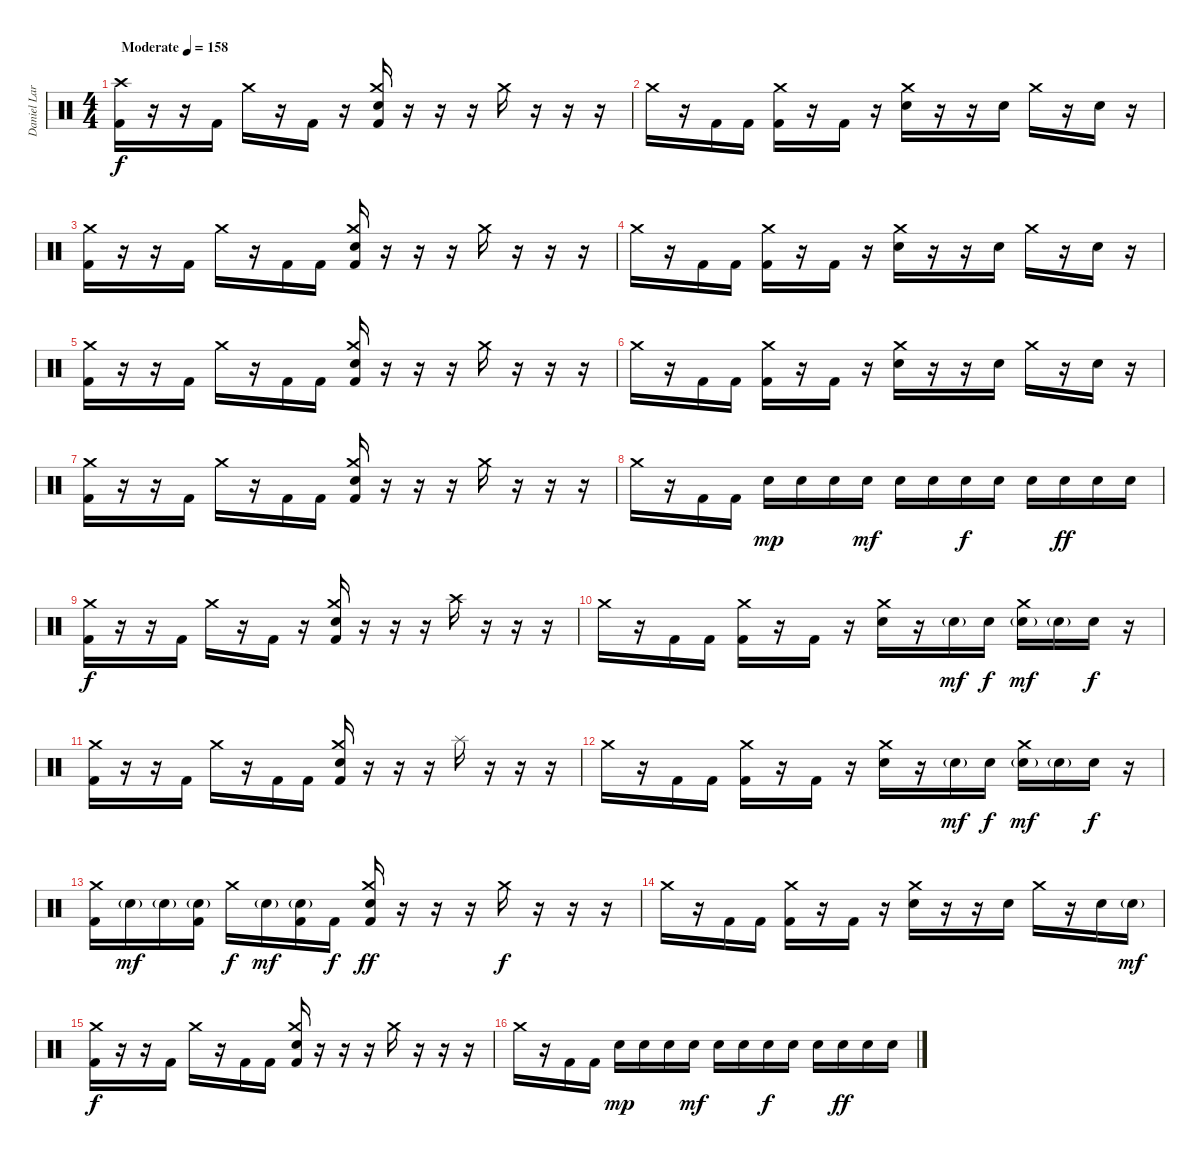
\track ("Daniel Larsen" "Daniel Lar") {instrument percussion}
\staff {score}
\articulation defaults
\ts (4 4)
\tempo (158 "Moderate")
\clef neutral
\ks c
("Crash high (hit)" "Kick (hit) 2").16{dy f} r.16 r.16 "Kick (hit) 2".16 "Crash medium (hit)".16 r.16 "Kick (hit) 2".16 r.16 ("Crash medium (hit)" "Electric Snare (hit)" "Kick (hit) 2").16 r.16 r.16 r.16 "Crash medium (hit)".16 r.16 r.16 r.16 |
"Crash medium (hit)".16 r.16 "Kick (hit) 2".16 "Kick (hit) 2".16 ("Crash medium (hit)" "Kick (hit) 2").16 r.16 "Kick (hit) 2".16 r.16 ("Crash medium (hit)" "Electric Snare (hit)").16 r.16 r.16 "Electric Snare (hit)".16 "Crash medium (hit)".16 r.16 "Electric Snare (hit)".16 r.16 |
("Crash medium (hit)" "Kick (hit) 2").16 r.16 r.16 "Kick (hit) 2".16 "Crash medium (hit)".16 r.16 "Kick (hit) 2".16 "Kick (hit) 2".16 ("Crash medium (hit)" "Electric Snare (hit)" "Kick (hit) 2").16 r.16 r.16 r.16 "Crash medium (hit)".16 r.16 r.16 r.16 |
"Crash medium (hit)".16 r.16 "Kick (hit) 2".16 "Kick (hit) 2".16 ("Crash medium (hit)" "Kick (hit) 2").16 r.16 "Kick (hit) 2".16 r.16 ("Crash medium (hit)" "Electric Snare (hit)").16 r.16 r.16 "Electric Snare (hit)".16 "Crash medium (hit)".16 r.16 "Electric Snare (hit)".16 r.16 |
("Crash medium (hit)" "Kick (hit) 2").16 r.16 r.16 "Kick (hit) 2".16 "Crash medium (hit)".16 r.16 "Kick (hit) 2".16 "Kick (hit) 2".16 ("Crash medium (hit)" "Electric Snare (hit)" "Kick (hit) 2").16 r.16 r.16 r.16 "Crash medium (hit)".16 r.16 r.16 r.16 |
"Crash medium (hit)".16 r.16 "Kick (hit) 2".16 "Kick (hit) 2".16 ("Crash medium (hit)" "Kick (hit) 2").16 r.16 "Kick (hit) 2".16 r.16 ("Crash medium (hit)" "Electric Snare (hit)").16 r.16 r.16 "Electric Snare (hit)".16 "Crash medium (hit)".16 r.16 "Electric Snare (hit)".16 r.16 |
("Crash medium (hit)" "Kick (hit) 2").16 r.16 r.16 "Kick (hit) 2".16 "Crash medium (hit)".16 r.16 "Kick (hit) 2".16 "Kick (hit) 2".16 ("Crash medium (hit)" "Electric Snare (hit)" "Kick (hit) 2").16 r.16 r.16 r.16 "Crash medium (hit)".16 r.16 r.16 r.16 |
"Crash medium (hit)".16 r.16 "Kick (hit) 2".16 "Kick (hit) 2".16 "Electric Snare (hit)".16{dy mp} "Electric Snare (hit)".16 "Electric Snare (hit)".16 "Electric Snare (hit)".16{dy mf} "Electric Snare (hit)".16 "Electric Snare (hit)".16 "Electric Snare (hit)".16{dy f} "Electric Snare (hit)".16 "Electric Snare (hit)".16 "Electric Snare (hit)".16{dy ff} "Electric Snare (hit)".16 "Electric Snare (hit)".16 |
("Crash medium (hit)" "Kick (hit) 2").16{dy f} r.16 r.16 "Kick (hit) 2".16 "Crash medium (hit)".16 r.16 "Kick (hit) 2".16 r.16 ("Crash medium (hit)" "Electric Snare (hit)" "Kick (hit) 2").16 r.16 r.16 r.16 "Crash high (hit)".16 r.16 r.16 r.16 |
"Crash medium (hit)".16 r.16 "Kick (hit) 2".16 "Kick (hit) 2".16 ("Crash medium (hit)" "Kick (hit) 2").16 r.16 "Kick (hit) 2".16 r.16 ("Crash medium (hit)" "Electric Snare (hit)").16 r.16 "Electric Snare (hit)"{g}.16{dy mf} "Electric Snare (hit)".16{dy f} ("Crash medium (hit)" "Electric Snare (hit)"{g}).16{dy mf} "Electric Snare (hit)"{g}.16 "Electric Snare (hit)".16{dy f} r.16 |
("Crash medium (hit)" "Kick (hit) 2").16 r.16 r.16 "Kick (hit) 2".16 "Crash medium (hit)".16 r.16 "Kick (hit) 2".16 "Kick (hit) 2".16 ("Crash medium (hit)" "Electric Snare (hit)" "Kick (hit) 2").16 r.16 r.16 r.16 "Splash (hit)".16 r.16 r.16 r.16 |
"Crash medium (hit)".16 r.16 "Kick (hit) 2".16 "Kick (hit) 2".16 ("Crash medium (hit)" "Kick (hit) 2").16 r.16 "Kick (hit) 2".16 r.16 ("Crash medium (hit)" "Electric Snare (hit)").16 r.16 "Electric Snare (hit)"{g}.16{dy mf} "Electric Snare (hit)".16{dy f} ("Crash medium (hit)" "Electric Snare (hit)"{g}).16{dy mf} "Electric Snare (hit)"{g}.16 "Electric Snare (hit)".16{dy f} r.16 |
("Crash medium (hit)" "Kick (hit) 2").16 "Electric Snare (hit)"{g}.16{dy mf} "Electric Snare (hit)"{g}.16 ("Electric Snare (hit)"{g} "Kick (hit) 2").16 "Crash medium (hit)".16{dy f} "Electric Snare (hit)"{g}.16{dy mf} ("Electric Snare (hit)"{g} "Kick (hit) 2").16 "Kick (hit) 2".16{dy f} ("Crash medium (hit)" "Electric Snare (hit)" "Kick (hit) 2").16{dy ff} r.16 r.16 r.16 "Crash medium (hit)".16{dy f} r.16 r.16 r.16 |
"Crash medium (hit)".16 r.16 "Kick (hit) 2".16 "Kick (hit) 2".16 ("Crash medium (hit)" "Kick (hit) 2").16 r.16 "Kick (hit) 2".16 r.16 ("Crash medium (hit)" "Electric Snare (hit)").16 r.16 r.16 "Electric Snare (hit)".16 "Crash medium (hit)".16 r.16 "Electric Snare (hit)".16 "Electric Snare (hit)"{g}.16{dy mf} |
("Crash medium (hit)" "Kick (hit) 2").16{dy f} r.16 r.16 "Kick (hit) 2".16 "Crash medium (hit)".16 r.16 "Kick (hit) 2".16 "Kick (hit) 2".16 ("Crash medium (hit)" "Electric Snare (hit)" "Kick (hit) 2").16 r.16 r.16 r.16 "Crash medium (hit)".16 r.16 r.16 r.16 |
"Crash medium (hit)".16 r.16 "Kick (hit) 2".16 "Kick (hit) 2".16 "Electric Snare (hit)".16{dy mp} "Electric Snare (hit)".16 "Electric Snare (hit)".16 "Electric Snare (hit)".16{dy mf} "Electric Snare (hit)".16 "Electric Snare (hit)".16 "Electric Snare (hit)".16{dy f} "Electric Snare (hit)".16 "Electric Snare (hit)".16 "Electric Snare (hit)".16{dy ff} "Electric Snare (hit)".16 "Electric Snare (hit)".16
